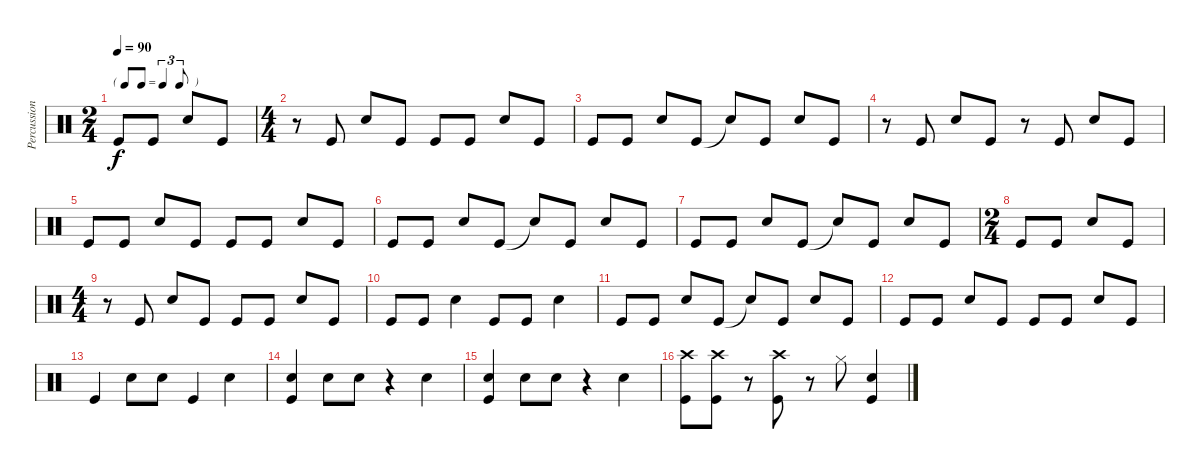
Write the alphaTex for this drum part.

\track ("Percussion" "Percussion") {instrument percussion}
\staff {score}
\articulation defaults
\ts (2 4)
\tf triplet8th
\tempo 90
\clef neutral
\ks c "Kick (hit)".8{dy f} "Kick (hit)".8 "Snare (hit) 2".8 "Kick (hit)".8
|
\ts (4 4)
r.8 "Kick (hit)".8 "Snare (hit) 2".8 "Kick (hit)".8 "Kick (hit)".8 "Kick (hit)".8 "Snare (hit) 2".8 "Kick (hit)".8 |
"Kick (hit)".8 "Kick (hit)".8 "Snare (hit) 2".8 "Kick (hit)".8 "Snare (hit)"{t}.8 "Kick (hit)".8 "Snare (hit) 2".8 "Kick (hit)".8 |
r.8 "Kick (hit)".8 "Snare (hit) 2".8 "Kick (hit)".8 r.8 "Kick (hit)".8 "Snare (hit) 2".8 "Kick (hit)".8 |
"Kick (hit)".8 "Kick (hit)".8 "Snare (hit) 2".8 "Kick (hit)".8 "Kick (hit)".8 "Kick (hit)".8 "Snare (hit) 2".8 "Kick (hit)".8 |
"Kick (hit)".8 "Kick (hit)".8 "Snare (hit) 2".8 "Kick (hit)".8 "Snare (hit)"{t}.8 "Kick (hit)".8 "Snare (hit) 2".8 "Kick (hit)".8 |
"Kick (hit)".8 "Kick (hit)".8 "Snare (hit) 2".8 "Kick (hit)".8 "Snare (hit)"{t}.8 "Kick (hit)".8 "Snare (hit) 2".8 "Kick (hit)".8 |
\ts (2 4)
"Kick (hit)".8 "Kick (hit)".8 "Snare (hit) 2".8 "Kick (hit)".8 |
\ts (4 4)
r.8 "Kick (hit)".8 "Snare (hit) 2".8 "Kick (hit)".8 "Kick (hit)".8 "Kick (hit)".8 "Snare (hit) 2".8 "Kick (hit)".8 |
"Kick (hit)".8 "Kick (hit)".8 "Snare (hit) 2".4 "Kick (hit)".8 "Kick (hit)".8 "Snare (hit) 2".4 |
"Kick (hit)".8 "Kick (hit)".8 "Snare (hit) 2".8 "Kick (hit)".8 "Snare (hit)"{t}.8 "Kick (hit)".8 "Snare (hit) 2".8 "Kick (hit)".8 |
"Kick (hit)".8 "Kick (hit)".8 "Snare (hit) 2".8 "Kick (hit)".8 "Kick (hit)".8 "Kick (hit)".8 "Snare (hit) 2".8 "Kick (hit)".8 |
"Kick (hit)".4 "Snare (hit) 2".8 "Snare (hit) 2".8 "Kick (hit)".4 "Snare (hit) 2".4 |
("Snare (hit) 2" "Kick (hit)").4 "Snare (hit) 2".8 "Snare (hit) 2".8 r.4 "Snare (hit) 2".4 |
("Snare (hit) 2" "Kick (hit)").4 "Snare (hit) 2".8 "Snare (hit) 2".8 r.4 "Snare (hit) 2".4 |
("Crash high (hit)" "Kick (hit)").8 ("Crash high (hit)" "Kick (hit)").8 r.8 ("Crash high (hit)" "Kick (hit)").8 r.8 "Hi-Hat (closed)".8 ("Snare (hit) 2" "Kick (hit)").4
